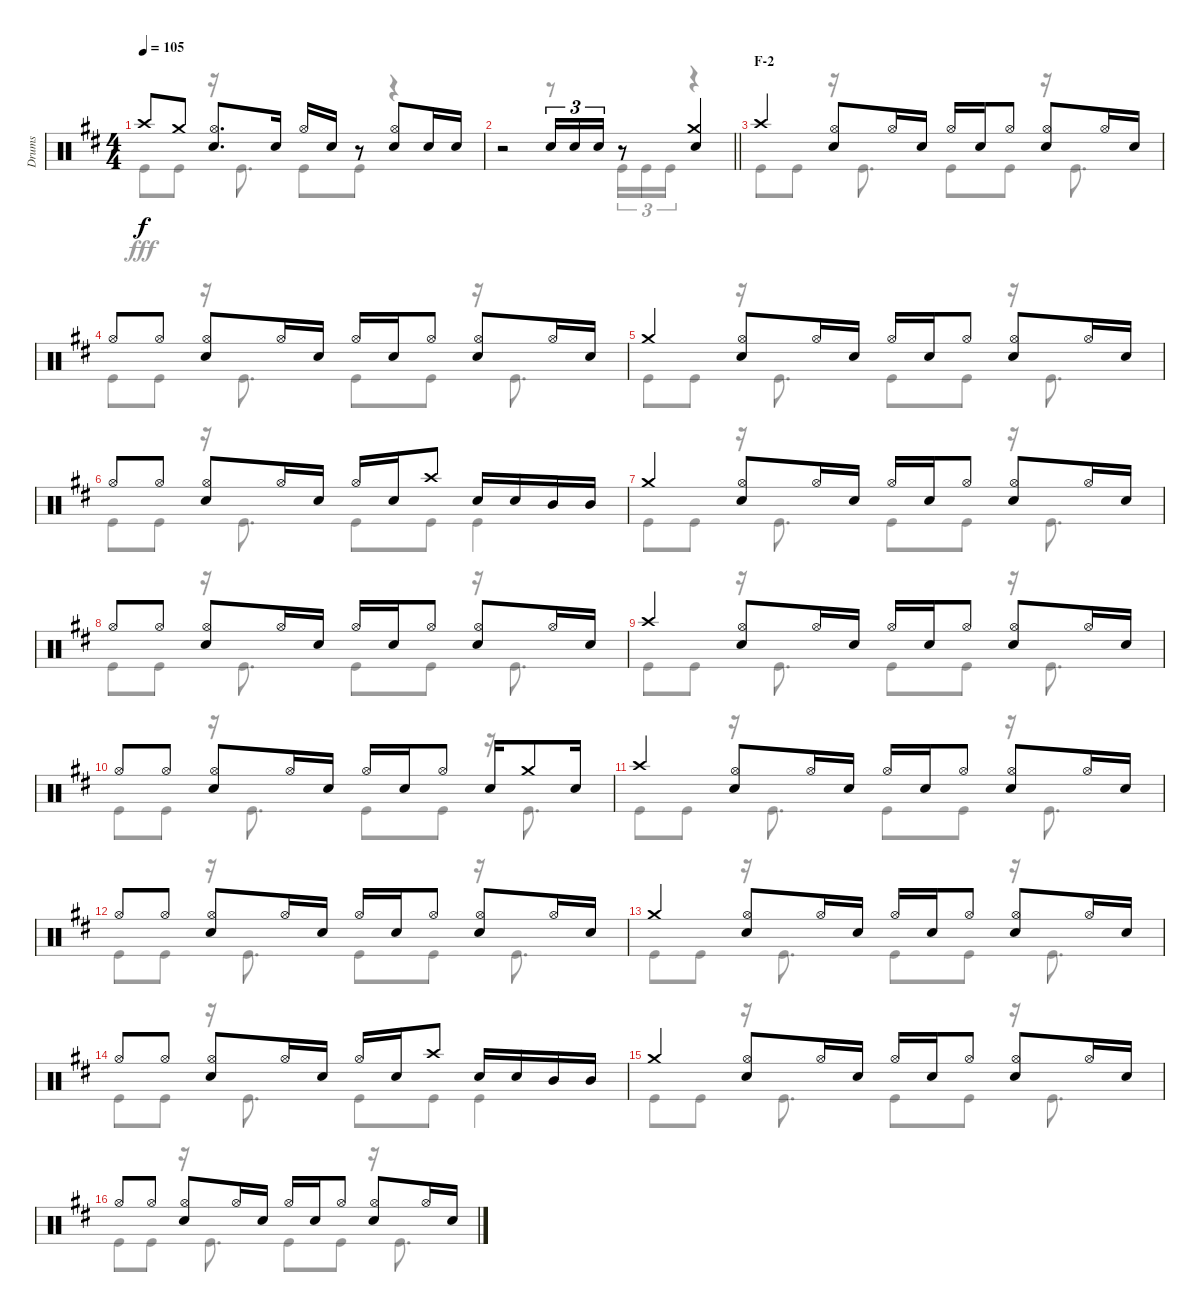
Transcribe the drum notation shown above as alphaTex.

\track ("Drums" "Drums") {instrument percussion}
\staff {score}
\articulation defaults
\voice
\ts (4 4)
\tempo 105
\clef neutral
\ks d "Crash high (hit)".8{dy f} "Crash medium (hit)".8
("Hi-Hat (open)" "Snare (hit) 2").8{d} "Snare (hit) 2".16 "Hi-Hat (open)".16 "Snare (hit) 2".16 r.8 ("Hi-Hat (open)" "Snare (hit) 2").8 "Snare (hit) 2".16 "Snare (hit) 2".16 |
\barLineRight lightlight
r.2 "Snare (hit) 2".16{tu (3 2)} "Snare (hit) 2".16{tu (3 2)} "Snare (hit) 2".16{tu (3 2)} r.8 ("Crash medium (hit)" "Snare (hit) 2").4 |
\section ("" "F-2")
"Crash high (hit)".4 ("Hi-Hat (open)" "Snare (hit) 2").8 "Hi-Hat (open)".16 "Snare (hit) 2".16 "Hi-Hat (open)".16 "Snare (hit) 2".16 "Hi-Hat (open)".8 ("Hi-Hat (open)" "Snare (hit) 2").8 "Hi-Hat (open)".16 "Snare (hit) 2".16 |
"Hi-Hat (open)".8 "Hi-Hat (open)".8 ("Hi-Hat (open)" "Snare (hit) 2").8 "Hi-Hat (open)".16 "Snare (hit) 2".16 "Hi-Hat (open)".16 "Snare (hit) 2".16 "Hi-Hat (open)".8 ("Hi-Hat (open)" "Snare (hit) 2").8 "Hi-Hat (open)".16 "Snare (hit) 2".16 |
"Crash medium (hit)".4 ("Hi-Hat (open)" "Snare (hit) 2").8 "Hi-Hat (open)".16 "Snare (hit) 2".16 "Hi-Hat (open)".16 "Snare (hit) 2".16 "Hi-Hat (open)".8 ("Hi-Hat (open)" "Snare (hit) 2").8 "Hi-Hat (open)".16 "Snare (hit) 2".16 |
"Hi-Hat (open)".8 "Hi-Hat (open)".8 ("Hi-Hat (open)" "Snare (hit) 2").8 "Hi-Hat (open)".16 "Snare (hit) 2".16 "Hi-Hat (open)".16 "Snare (hit) 2".16 "Crash high (hit)".8 "Snare (hit) 2".16 "Snare (hit) 2".16 "Mid Tom (hit)".16 "Mid Tom (hit)".16 |
"Crash medium (hit)".4 ("Hi-Hat (open)" "Snare (hit) 2").8 "Hi-Hat (open)".16 "Snare (hit) 2".16 "Hi-Hat (open)".16 "Snare (hit) 2".16 "Hi-Hat (open)".8 ("Hi-Hat (open)" "Snare (hit) 2").8 "Hi-Hat (open)".16 "Snare (hit) 2".16 |
"Hi-Hat (open)".8 "Hi-Hat (open)".8 ("Hi-Hat (open)" "Snare (hit) 2").8 "Hi-Hat (open)".16 "Snare (hit) 2".16 "Hi-Hat (open)".16 "Snare (hit) 2".16 "Hi-Hat (open)".8 ("Hi-Hat (open)" "Snare (hit) 2").8 "Hi-Hat (open)".16 "Snare (hit) 2".16 |
"Crash high (hit)".4 ("Hi-Hat (open)" "Snare (hit) 2").8 "Hi-Hat (open)".16 "Snare (hit) 2".16 "Hi-Hat (open)".16 "Snare (hit) 2".16 "Hi-Hat (open)".8 ("Hi-Hat (open)" "Snare (hit) 2").8 "Hi-Hat (open)".16 "Snare (hit) 2".16 |
"Hi-Hat (open)".8 "Hi-Hat (open)".8 ("Hi-Hat (open)" "Snare (hit) 2").8 "Hi-Hat (open)".16 "Snare (hit) 2".16 "Hi-Hat (open)".16 "Snare (hit) 2".16 "Hi-Hat (open)".8 "Snare (hit) 2".16 "Crash medium (hit)".8 "Snare (hit) 2".16 |
"Crash high (hit)".4 ("Hi-Hat (open)" "Snare (hit) 2").8 "Hi-Hat (open)".16 "Snare (hit) 2".16 "Hi-Hat (open)".16 "Snare (hit) 2".16 "Hi-Hat (open)".8 ("Hi-Hat (open)" "Snare (hit) 2").8 "Hi-Hat (open)".16 "Snare (hit) 2".16 |
"Hi-Hat (open)".8 "Hi-Hat (open)".8 ("Hi-Hat (open)" "Snare (hit) 2").8 "Hi-Hat (open)".16 "Snare (hit) 2".16 "Hi-Hat (open)".16 "Snare (hit) 2".16 "Hi-Hat (open)".8 ("Hi-Hat (open)" "Snare (hit) 2").8 "Hi-Hat (open)".16 "Snare (hit) 2".16 |
"Crash medium (hit)".4 ("Hi-Hat (open)" "Snare (hit) 2").8 "Hi-Hat (open)".16 "Snare (hit) 2".16 "Hi-Hat (open)".16 "Snare (hit) 2".16 "Hi-Hat (open)".8 ("Hi-Hat (open)" "Snare (hit) 2").8 "Hi-Hat (open)".16 "Snare (hit) 2".16 |
"Hi-Hat (open)".8 "Hi-Hat (open)".8 ("Hi-Hat (open)" "Snare (hit) 2").8 "Hi-Hat (open)".16 "Snare (hit) 2".16 "Hi-Hat (open)".16 "Snare (hit) 2".16 "Crash high (hit)".8 "Snare (hit) 2".16 "Snare (hit) 2".16 "Mid Tom (hit)".16 "Mid Tom (hit)".16 |
"Crash medium (hit)".4 ("Hi-Hat (open)" "Snare (hit) 2").8 "Hi-Hat (open)".16 "Snare (hit) 2".16 "Hi-Hat (open)".16 "Snare (hit) 2".16 "Hi-Hat (open)".8 ("Hi-Hat (open)" "Snare (hit) 2").8 "Hi-Hat (open)".16 "Snare (hit) 2".16 |
"Hi-Hat (open)".8 "Hi-Hat (open)".8 ("Hi-Hat (open)" "Snare (hit) 2").8 "Hi-Hat (open)".16 "Snare (hit) 2".16 "Hi-Hat (open)".16 "Snare (hit) 2".16 "Hi-Hat (open)".8 ("Hi-Hat (open)" "Snare (hit) 2").8 "Hi-Hat (open)".16 "Snare (hit) 2".16
\voice
\clef neutral
\ottava regular
\simile none
\ks d "Kick (hit)".8{dy fff} "Kick (hit)".8
r.16 "Kick (hit)".8{d} "Kick (hit)".8 "Kick (hit)".8 r.4 |
\barLineRight lightlight
r.2 r.8 "Kick (hit)".16{tu (3 2)} "Kick (hit)".16{tu (3 2)} "Kick (hit)".16{tu (3 2)} r.4 |
"Kick (hit)".8 "Kick (hit)".8 r.16 "Kick (hit)".8{d} "Kick (hit)".8 "Kick (hit)".8 r.16 "Kick (hit)".8{d} |
"Kick (hit)".8 "Kick (hit)".8 r.16 "Kick (hit)".8{d} "Kick (hit)".8 "Kick (hit)".8 r.16 "Kick (hit)".8{d} |
"Kick (hit)".8 "Kick (hit)".8 r.16 "Kick (hit)".8{d} "Kick (hit)".8 "Kick (hit)".8 r.16 "Kick (hit)".8{d} |
"Kick (hit)".8 "Kick (hit)".8 r.16 "Kick (hit)".8{d} "Kick (hit)".8 "Kick (hit)".8 "Kick (hit)".4 |
"Kick (hit)".8 "Kick (hit)".8 r.16 "Kick (hit)".8{d} "Kick (hit)".8 "Kick (hit)".8 r.16 "Kick (hit)".8{d} |
"Kick (hit)".8 "Kick (hit)".8 r.16 "Kick (hit)".8{d} "Kick (hit)".8 "Kick (hit)".8 r.16 "Kick (hit)".8{d} |
"Kick (hit)".8 "Kick (hit)".8 r.16 "Kick (hit)".8{d} "Kick (hit)".8 "Kick (hit)".8 r.16 "Kick (hit)".8{d} |
"Kick (hit)".8 "Kick (hit)".8 r.16 "Kick (hit)".8{d} "Kick (hit)".8 "Kick (hit)".8 r.16 "Kick (hit)".8{d} |
"Kick (hit)".8 "Kick (hit)".8 r.16 "Kick (hit)".8{d} "Kick (hit)".8 "Kick (hit)".8 r.16 "Kick (hit)".8{d} |
"Kick (hit)".8 "Kick (hit)".8 r.16 "Kick (hit)".8{d} "Kick (hit)".8 "Kick (hit)".8 r.16 "Kick (hit)".8{d} |
"Kick (hit)".8 "Kick (hit)".8 r.16 "Kick (hit)".8{d} "Kick (hit)".8 "Kick (hit)".8 r.16 "Kick (hit)".8{d} |
"Kick (hit)".8 "Kick (hit)".8 r.16 "Kick (hit)".8{d} "Kick (hit)".8 "Kick (hit)".8 "Kick (hit)".4 |
"Kick (hit)".8 "Kick (hit)".8 r.16 "Kick (hit)".8{d} "Kick (hit)".8 "Kick (hit)".8 r.16 "Kick (hit)".8{d} |
"Kick (hit)".8 "Kick (hit)".8 r.16 "Kick (hit)".8{d} "Kick (hit)".8 "Kick (hit)".8 r.16 "Kick (hit)".8{d}
